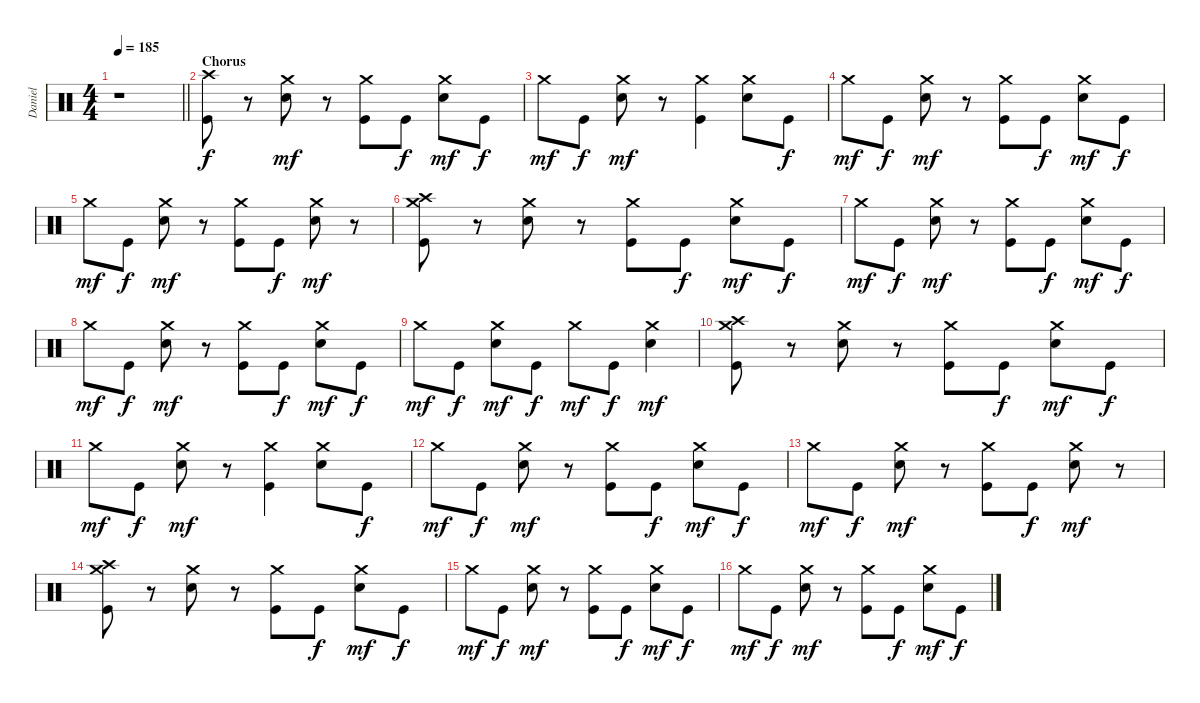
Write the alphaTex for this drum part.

\track ("Daniel" "Daniel") {instrument percussion}
\staff {score}
\articulation defaults
\ts (4 4)
\tempo 185
\clef neutral
\barLineRight lightlight
\ks c
r.1{dy mf} |
\section ("" "Chorus")
("Kick (hit)" "Crash high (hit)").8{dy f} r.8 ("Electric Snare (hit)" "Crash medium (hit)").8{dy mf} r.8 ("Kick (hit)" "Crash medium (hit)").8 "Kick (hit)".8{dy f} ("Electric Snare (hit)" "Crash medium (hit)").8{dy mf} "Kick (hit)".8{dy f} |
"Crash medium (hit)".8{dy mf} "Kick (hit)".8{dy f} ("Electric Snare (hit)" "Crash medium (hit)").8{dy mf} r.8 ("Kick (hit)" "Crash medium (hit)").4 ("Electric Snare (hit)" "Crash medium (hit)").8 "Kick (hit)".8{dy f} |
"Crash medium (hit)".8{dy mf} "Kick (hit)".8{dy f} ("Electric Snare (hit)" "Crash medium (hit)").8{dy mf} r.8 ("Kick (hit)" "Crash medium (hit)").8 "Kick (hit)".8{dy f} ("Electric Snare (hit)" "Crash medium (hit)").8{dy mf} "Kick (hit)".8{dy f} |
"Crash medium (hit)".8{dy mf} "Kick (hit)".8{dy f} ("Electric Snare (hit)" "Crash medium (hit)").8{dy mf} r.8 ("Kick (hit)" "Crash medium (hit)").8 "Kick (hit)".8{dy f} ("Electric Snare (hit)" "Crash medium (hit)").8{dy mf} r.8 |
("Kick (hit)" "Crash medium (hit)" "Crash high (hit)").8 r.8 ("Electric Snare (hit)" "Crash medium (hit)").8 r.8 ("Kick (hit)" "Crash medium (hit)").8 "Kick (hit)".8{dy f} ("Electric Snare (hit)" "Crash medium (hit)").8{dy mf} "Kick (hit)".8{dy f} |
"Crash medium (hit)".8{dy mf} "Kick (hit)".8{dy f} ("Electric Snare (hit)" "Crash medium (hit)").8{dy mf} r.8 ("Kick (hit)" "Crash medium (hit)").8 "Kick (hit)".8{dy f} ("Electric Snare (hit)" "Crash medium (hit)").8{dy mf} "Kick (hit)".8{dy f} |
"Crash medium (hit)".8{dy mf} "Kick (hit)".8{dy f} ("Electric Snare (hit)" "Crash medium (hit)").8{dy mf} r.8 ("Kick (hit)" "Crash medium (hit)").8 "Kick (hit)".8{dy f} ("Electric Snare (hit)" "Crash medium (hit)").8{dy mf} "Kick (hit)".8{dy f} |
"Crash medium (hit)".8{dy mf} "Kick (hit)".8{dy f} ("Electric Snare (hit)" "Crash medium (hit)").8{dy mf} "Kick (hit)".8{dy f} "Crash medium (hit)".8{dy mf} "Kick (hit)".8{dy f} ("Electric Snare (hit)" "Crash medium (hit)").4{dy mf} |
("Kick (hit)" "Crash medium (hit)" "Crash high (hit)").8 r.8 ("Electric Snare (hit)" "Crash medium (hit)").8 r.8 ("Kick (hit)" "Crash medium (hit)").8 "Kick (hit)".8{dy f} ("Electric Snare (hit)" "Crash medium (hit)").8{dy mf} "Kick (hit)".8{dy f} |
"Crash medium (hit)".8{dy mf} "Kick (hit)".8{dy f} ("Electric Snare (hit)" "Crash medium (hit)").8{dy mf} r.8 ("Kick (hit)" "Crash medium (hit)").4 ("Electric Snare (hit)" "Crash medium (hit)").8 "Kick (hit)".8{dy f} |
"Crash medium (hit)".8{dy mf} "Kick (hit)".8{dy f} ("Electric Snare (hit)" "Crash medium (hit)").8{dy mf} r.8 ("Kick (hit)" "Crash medium (hit)").8 "Kick (hit)".8{dy f} ("Electric Snare (hit)" "Crash medium (hit)").8{dy mf} "Kick (hit)".8{dy f} |
"Crash medium (hit)".8{dy mf} "Kick (hit)".8{dy f} ("Electric Snare (hit)" "Crash medium (hit)").8{dy mf} r.8 ("Kick (hit)" "Crash medium (hit)").8 "Kick (hit)".8{dy f} ("Electric Snare (hit)" "Crash medium (hit)").8{dy mf} r.8 |
("Kick (hit)" "Crash medium (hit)" "Crash high (hit)").8 r.8 ("Electric Snare (hit)" "Crash medium (hit)").8 r.8 ("Kick (hit)" "Crash medium (hit)").8 "Kick (hit)".8{dy f} ("Electric Snare (hit)" "Crash medium (hit)").8{dy mf} "Kick (hit)".8{dy f} |
"Crash medium (hit)".8{dy mf} "Kick (hit)".8{dy f} ("Electric Snare (hit)" "Crash medium (hit)").8{dy mf} r.8 ("Kick (hit)" "Crash medium (hit)").8 "Kick (hit)".8{dy f} ("Electric Snare (hit)" "Crash medium (hit)").8{dy mf} "Kick (hit)".8{dy f} |
"Crash medium (hit)".8{dy mf} "Kick (hit)".8{dy f} ("Electric Snare (hit)" "Crash medium (hit)").8{dy mf} r.8 ("Kick (hit)" "Crash medium (hit)").8 "Kick (hit)".8{dy f} ("Electric Snare (hit)" "Crash medium (hit)").8{dy mf} "Kick (hit)".8{dy f}
